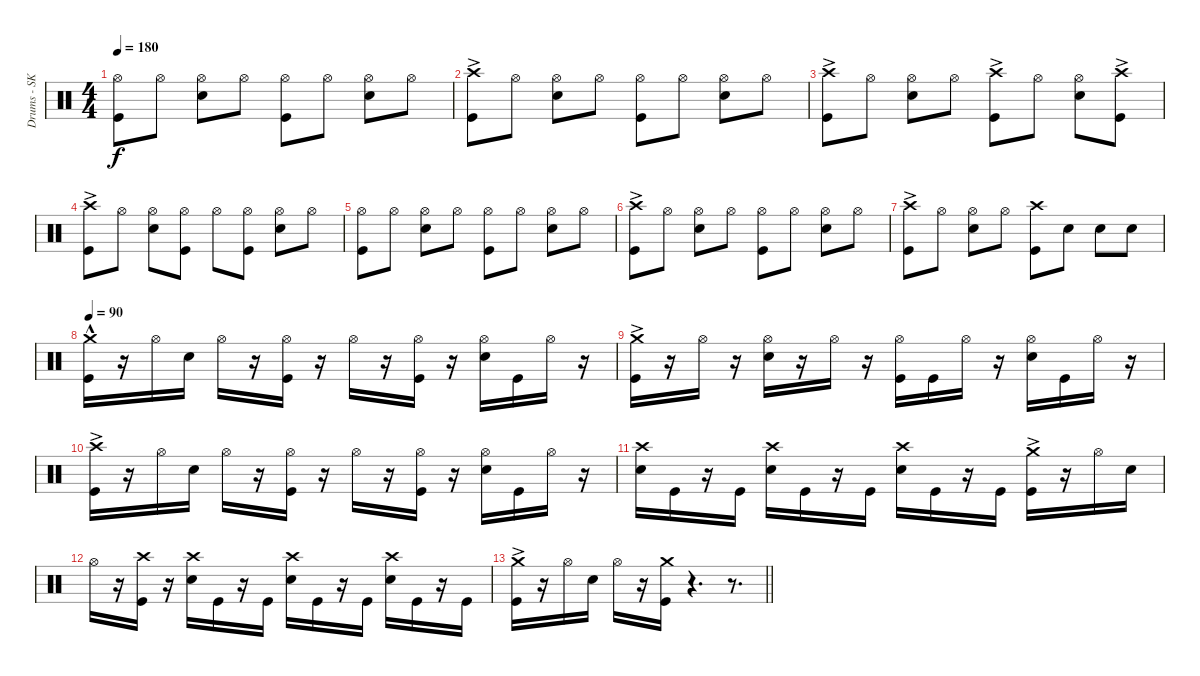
\track ("Drums - SK" "Drums - SK") {instrument percussion}
\staff {score}
\articulation defaults
\ts (4 4)
\tempo 180
\clef neutral
\ks c
("Hi-Hat (open)" "Kick (hit)").8{dy f} "Hi-Hat (open)".8 ("Hi-Hat (open)" "Snare (hit) 2").8 "Hi-Hat (open)".8 ("Hi-Hat (open)" "Kick (hit)").8 "Hi-Hat (open)".8 ("Hi-Hat (open)" "Snare (hit) 2").8 "Hi-Hat (open)".8 |
("Kick (hit)"{ac} "Crash high (hit)"{ac}).8 "Hi-Hat (open)".8 ("Hi-Hat (open)" "Snare (hit) 2").8 "Hi-Hat (open)".8 ("Hi-Hat (open)" "Kick (hit)").8 "Hi-Hat (open)".8 ("Hi-Hat (open)" "Snare (hit) 2").8 "Hi-Hat (open)".8 |
("Kick (hit)"{ac} "Crash high (hit)"{ac}).8 "Hi-Hat (open)".8 ("Hi-Hat (open)" "Snare (hit) 2").8 "Hi-Hat (open)".8 ("Kick (hit)"{ac} "Crash high (hit)"{ac}).8 "Hi-Hat (open)".8 ("Hi-Hat (open)" "Snare (hit) 2").8 ("Kick (hit)"{ac} "Crash high (hit)"{ac}).8 |
("Crash high (hit)"{ac} "Kick (hit)"{ac}).8 "Hi-Hat (open)".8 ("Hi-Hat (open)" "Snare (hit) 2").8 ("Kick (hit)" "Hi-Hat (open)").8 "Hi-Hat (open)".8 ("Kick (hit)" "Hi-Hat (open)").8 ("Hi-Hat (open)" "Snare (hit) 2").8 "Hi-Hat (open)".8 |
("Hi-Hat (open)" "Kick (hit)").8 "Hi-Hat (open)".8 ("Hi-Hat (open)" "Snare (hit) 2").8 "Hi-Hat (open)".8 ("Hi-Hat (open)" "Kick (hit)").8 "Hi-Hat (open)".8 ("Hi-Hat (open)" "Snare (hit) 2").8 "Hi-Hat (open)".8 |
("Kick (hit)"{ac} "Crash high (hit)"{ac}).8 "Hi-Hat (open)".8 ("Hi-Hat (open)" "Snare (hit) 2").8 "Hi-Hat (open)".8 ("Hi-Hat (open)" "Kick (hit)").8 "Hi-Hat (open)".8 ("Hi-Hat (open)" "Snare (hit) 2").8 "Hi-Hat (open)".8 |
("Kick (hit)"{ac} "Crash high (hit)"{ac}).8 "Hi-Hat (open)".8 ("Hi-Hat (open)" "Snare (hit) 2").8 "Hi-Hat (open)".8 ("Kick (hit)" "Crash high (hit)").8 "Snare (hit) 2".8 "Snare (hit) 2".8 "Snare (hit) 2".8 |
\tempo 90
("Kick (hit)"{hac} "Crash medium (hit)"{hac}).16 r.16 "Hi-Hat (open)".16 "Snare (hit) 2".16 "Hi-Hat (open)".16 r.16 ("Kick (hit)" "Hi-Hat (open)").16 r.16 "Hi-Hat (open)".16 r.16 ("Kick (hit)" "Hi-Hat (open)").16 r.16 ("Snare (hit) 2" "Hi-Hat (open)").16 "Kick (hit)".16 "Hi-Hat (open)".16 r.16 |
("Kick (hit)"{ac} "Crash medium (hit)"{ac}).16 r.16 "Hi-Hat (open)".16 r.16 ("Snare (hit) 2" "Hi-Hat (open)").16 r.16 "Hi-Hat (open)".16 r.16 ("Kick (hit)" "Hi-Hat (open)").16 "Kick (hit)".16 "Hi-Hat (open)".16 r.16 ("Snare (hit) 2" "Hi-Hat (open)").16 "Kick (hit)".16 "Hi-Hat (open)".16 r.16 |
("Kick (hit)"{ac} "Crash high (hit)").16 r.16 "Hi-Hat (open)".16 "Snare (hit) 2".16 "Hi-Hat (open)".16 r.16 ("Kick (hit)" "Hi-Hat (open)").16 r.16 "Hi-Hat (open)".16 r.16 ("Kick (hit)" "Hi-Hat (open)").16 r.16 ("Snare (hit) 2" "Hi-Hat (open)").16 "Kick (hit)".16 "Hi-Hat (open)".16 r.16 |
("Crash high (hit)" "Snare (hit) 2").16 "Kick (hit)".16 r.16 "Kick (hit)".16 ("Crash high (hit)" "Snare (hit) 2").16 "Kick (hit)".16 r.16 "Kick (hit)".16 ("Crash high (hit)" "Snare (hit) 2").16 "Kick (hit)".16 r.16 "Kick (hit)".16 ("Kick (hit)"{ac} "Crash medium (hit)").16 r.16 "Hi-Hat (open)".16 "Snare (hit) 2".16 |
"Hi-Hat (open)".16 r.16 ("Kick (hit)" "Crash high (hit)").16 r.16 ("Crash high (hit)" "Snare (hit) 2").16 "Kick (hit)".16 r.16 "Kick (hit)".16 ("Crash high (hit)" "Snare (hit) 2").16 "Kick (hit)".16 r.16 "Kick (hit)".16 ("Crash high (hit)" "Snare (hit) 2").16 "Kick (hit)".16 r.16 "Kick (hit)".16 |
\barLineRight lightlight
("Kick (hit)"{ac} "Crash medium (hit)").16 r.16 "Hi-Hat (open)".16 "Snare (hit) 2".16 "Hi-Hat (open)".16 r.16 ("Kick (hit)" "Crash medium (hit)").16 r.4{d} r.8{d}
